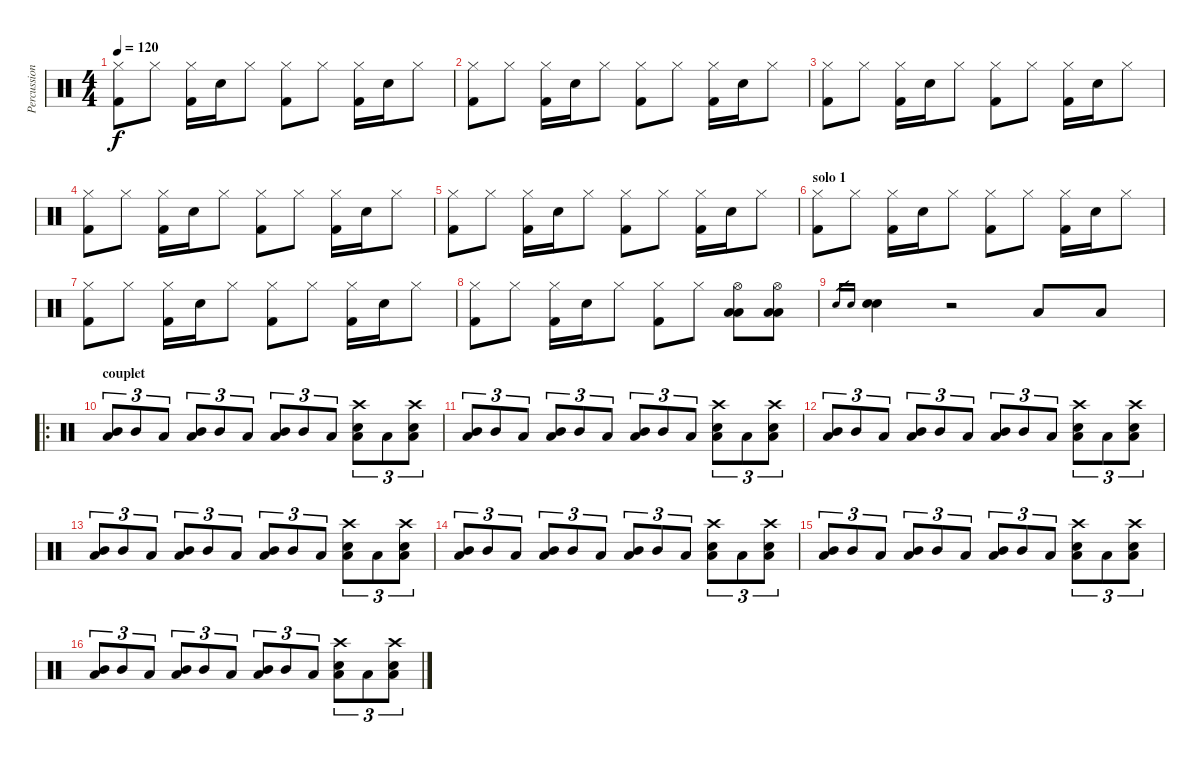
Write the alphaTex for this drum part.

\track ("Percussions" "Percussion") {instrument percussion}
\staff {score}
\articulation defaults
\ts (4 4)
\tempo 120
\clef neutral
\ks c
("Hi-Hat (closed)" "Kick (hit) 2").8{dy f} "Hi-Hat (closed)".8 ("Hi-Hat (closed)" "Kick (hit) 2").16 "Snare (hit) 2".16 "Hi-Hat (closed)".8 ("Hi-Hat (closed)" "Kick (hit) 2").8 "Hi-Hat (closed)".8 ("Hi-Hat (closed)" "Kick (hit) 2").16 "Snare (hit) 2".16 "Hi-Hat (closed)".8 |
("Hi-Hat (closed)" "Kick (hit) 2").8 "Hi-Hat (closed)".8 ("Hi-Hat (closed)" "Kick (hit) 2").16 "Snare (hit) 2".16 "Hi-Hat (closed)".8 ("Hi-Hat (closed)" "Kick (hit) 2").8 "Hi-Hat (closed)".8 ("Hi-Hat (closed)" "Kick (hit) 2").16 "Snare (hit) 2".16 "Hi-Hat (closed)".8 |
("Hi-Hat (closed)" "Kick (hit) 2").8 "Hi-Hat (closed)".8 ("Hi-Hat (closed)" "Kick (hit) 2").16 "Snare (hit) 2".16 "Hi-Hat (closed)".8 ("Hi-Hat (closed)" "Kick (hit) 2").8 "Hi-Hat (closed)".8 ("Hi-Hat (closed)" "Kick (hit) 2").16 "Snare (hit) 2".16 "Hi-Hat (closed)".8 |
("Hi-Hat (closed)" "Kick (hit) 2").8 "Hi-Hat (closed)".8 ("Hi-Hat (closed)" "Kick (hit) 2").16 "Snare (hit) 2".16 "Hi-Hat (closed)".8 ("Hi-Hat (closed)" "Kick (hit) 2").8 "Hi-Hat (closed)".8 ("Hi-Hat (closed)" "Kick (hit) 2").16 "Snare (hit) 2".16 "Hi-Hat (closed)".8 |
("Hi-Hat (closed)" "Kick (hit) 2").8 "Hi-Hat (closed)".8 ("Hi-Hat (closed)" "Kick (hit) 2").16 "Snare (hit) 2".16 "Hi-Hat (closed)".8 ("Hi-Hat (closed)" "Kick (hit) 2").8 "Hi-Hat (closed)".8 ("Hi-Hat (closed)" "Kick (hit) 2").16 "Snare (hit) 2".16 "Hi-Hat (closed)".8 |
\section ("" "solo 1")
("Hi-Hat (closed)" "Kick (hit) 2").8 "Hi-Hat (closed)".8 ("Hi-Hat (closed)" "Kick (hit) 2").16 "Snare (hit) 2".16 "Hi-Hat (closed)".8 ("Hi-Hat (closed)" "Kick (hit) 2").8 "Hi-Hat (closed)".8 ("Hi-Hat (closed)" "Kick (hit) 2").16 "Snare (hit) 2".16 "Hi-Hat (closed)".8 |
("Hi-Hat (closed)" "Kick (hit) 2").8 "Hi-Hat (closed)".8 ("Hi-Hat (closed)" "Kick (hit) 2").16 "Snare (hit) 2".16 "Hi-Hat (closed)".8 ("Hi-Hat (closed)" "Kick (hit) 2").8 "Hi-Hat (closed)".8 ("Hi-Hat (closed)" "Kick (hit) 2").16 "Snare (hit) 2".16 "Hi-Hat (closed)".8 |
("Hi-Hat (closed)" "Kick (hit) 2").8 "Hi-Hat (closed)".8 ("Hi-Hat (closed)" "Kick (hit) 2").16 "Snare (hit) 2".16 "Hi-Hat (closed)".8 ("Hi-Hat (closed)" "Kick (hit) 2").8 "Hi-Hat (closed)".8 ("Hi-Hat (open)" "Low Tom (hit)" "Low Floor Tom (hit)").8 ("Hi-Hat (open)" "Low Tom (hit)" "Low Floor Tom (hit)").8 |
"Snare (hit) 2".16{gr} "Snare (hit) 2".16{gr} ("Snare (hit) 2" "Snare (hit) 2").4 r.2 "Low Floor Tom (hit)".8 "Low Floor Tom (hit)".8 |
\ro
\section ("" "couplet")
("Mid Tom (hit)" "Low Floor Tom (hit)").8{tu (3 2)} "Mid Tom (hit)".8{tu (3 2)} "Low Tom (hit)".8{tu (3 2)} ("Mid Tom (hit)" "Low Floor Tom (hit)").8{tu (3 2)} "Mid Tom (hit)".8{tu (3 2)} "Low Tom (hit)".8{tu (3 2)} ("Mid Tom (hit)" "Low Floor Tom (hit)").8{tu (3 2)} "Mid Tom (hit)".8{tu (3 2)} "Low Tom (hit)".8{tu (3 2)} ("Crash high (hit)" "Snare (hit) 2" "Low Floor Tom (hit)").8{tu (3 2)} "Low Floor Tom (hit)".8{tu (3 2)} ("Crash high (hit)" "Snare (hit) 2" "Low Floor Tom (hit)").8{tu (3 2)} |
("Mid Tom (hit)" "Low Floor Tom (hit)").8{tu (3 2)} "Mid Tom (hit)".8{tu (3 2)} "Low Tom (hit)".8{tu (3 2)} ("Mid Tom (hit)" "Low Floor Tom (hit)").8{tu (3 2)} "Mid Tom (hit)".8{tu (3 2)} "Low Tom (hit)".8{tu (3 2)} ("Mid Tom (hit)" "Low Floor Tom (hit)").8{tu (3 2)} "Mid Tom (hit)".8{tu (3 2)} "Low Tom (hit)".8{tu (3 2)} ("Crash high (hit)" "Snare (hit) 2" "Low Floor Tom (hit)").8{tu (3 2)} "Low Floor Tom (hit)".8{tu (3 2)} ("Crash high (hit)" "Snare (hit) 2" "Low Floor Tom (hit)").8{tu (3 2)} |
("Mid Tom (hit)" "Low Floor Tom (hit)").8{tu (3 2)} "Mid Tom (hit)".8{tu (3 2)} "Low Tom (hit)".8{tu (3 2)} ("Mid Tom (hit)" "Low Floor Tom (hit)").8{tu (3 2)} "Mid Tom (hit)".8{tu (3 2)} "Low Tom (hit)".8{tu (3 2)} ("Mid Tom (hit)" "Low Floor Tom (hit)").8{tu (3 2)} "Mid Tom (hit)".8{tu (3 2)} "Low Tom (hit)".8{tu (3 2)} ("Crash high (hit)" "Snare (hit) 2" "Low Floor Tom (hit)").8{tu (3 2)} "Low Floor Tom (hit)".8{tu (3 2)} ("Crash high (hit)" "Snare (hit) 2" "Low Floor Tom (hit)").8{tu (3 2)} |
("Mid Tom (hit)" "Low Floor Tom (hit)").8{tu (3 2)} "Mid Tom (hit)".8{tu (3 2)} "Low Tom (hit)".8{tu (3 2)} ("Mid Tom (hit)" "Low Floor Tom (hit)").8{tu (3 2)} "Mid Tom (hit)".8{tu (3 2)} "Low Tom (hit)".8{tu (3 2)} ("Mid Tom (hit)" "Low Floor Tom (hit)").8{tu (3 2)} "Mid Tom (hit)".8{tu (3 2)} "Low Tom (hit)".8{tu (3 2)} ("Crash high (hit)" "Snare (hit) 2" "Low Floor Tom (hit)").8{tu (3 2)} "Low Floor Tom (hit)".8{tu (3 2)} ("Crash high (hit)" "Snare (hit) 2" "Low Floor Tom (hit)").8{tu (3 2)} |
("Mid Tom (hit)" "Low Floor Tom (hit)").8{tu (3 2)} "Mid Tom (hit)".8{tu (3 2)} "Low Tom (hit)".8{tu (3 2)} ("Mid Tom (hit)" "Low Floor Tom (hit)").8{tu (3 2)} "Mid Tom (hit)".8{tu (3 2)} "Low Tom (hit)".8{tu (3 2)} ("Mid Tom (hit)" "Low Floor Tom (hit)").8{tu (3 2)} "Mid Tom (hit)".8{tu (3 2)} "Low Tom (hit)".8{tu (3 2)} ("Crash high (hit)" "Snare (hit) 2" "Low Floor Tom (hit)").8{tu (3 2)} "Low Floor Tom (hit)".8{tu (3 2)} ("Crash high (hit)" "Snare (hit) 2" "Low Floor Tom (hit)").8{tu (3 2)} |
("Mid Tom (hit)" "Low Floor Tom (hit)").8{tu (3 2)} "Mid Tom (hit)".8{tu (3 2)} "Low Tom (hit)".8{tu (3 2)} ("Mid Tom (hit)" "Low Floor Tom (hit)").8{tu (3 2)} "Mid Tom (hit)".8{tu (3 2)} "Low Tom (hit)".8{tu (3 2)} ("Mid Tom (hit)" "Low Floor Tom (hit)").8{tu (3 2)} "Mid Tom (hit)".8{tu (3 2)} "Low Tom (hit)".8{tu (3 2)} ("Crash high (hit)" "Snare (hit) 2" "Low Floor Tom (hit)").8{tu (3 2)} "Low Floor Tom (hit)".8{tu (3 2)} ("Crash high (hit)" "Snare (hit) 2" "Low Floor Tom (hit)").8{tu (3 2)} |
("Mid Tom (hit)" "Low Floor Tom (hit)").8{tu (3 2)} "Mid Tom (hit)".8{tu (3 2)} "Low Tom (hit)".8{tu (3 2)} ("Mid Tom (hit)" "Low Floor Tom (hit)").8{tu (3 2)} "Mid Tom (hit)".8{tu (3 2)} "Low Tom (hit)".8{tu (3 2)} ("Mid Tom (hit)" "Low Floor Tom (hit)").8{tu (3 2)} "Mid Tom (hit)".8{tu (3 2)} "Low Tom (hit)".8{tu (3 2)} ("Crash high (hit)" "Snare (hit) 2" "Low Floor Tom (hit)").8{tu (3 2)} "Low Floor Tom (hit)".8{tu (3 2)} ("Crash high (hit)" "Snare (hit) 2" "Low Floor Tom (hit)").8{tu (3 2)}
